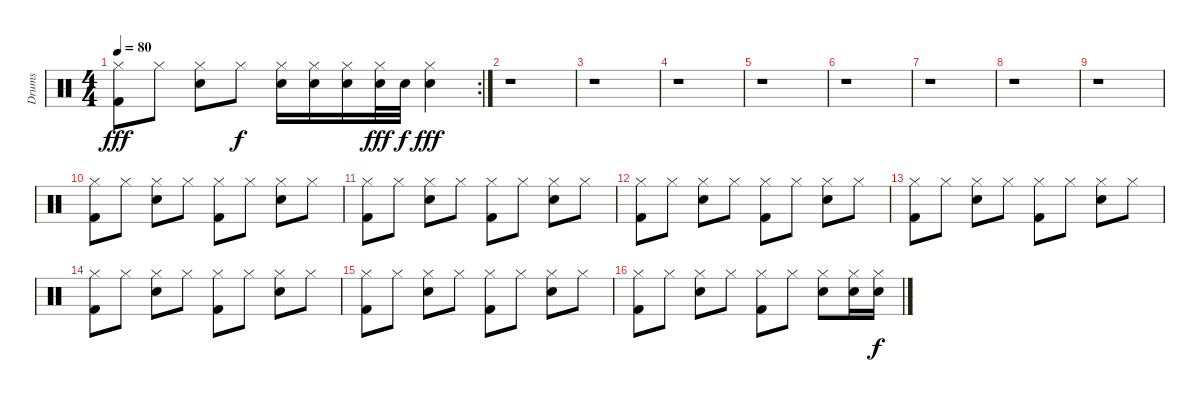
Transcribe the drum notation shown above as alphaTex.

\track ("Drums" "Drums") {instrument percussion}
\staff {score}
\articulation defaults
\rc 2
\ts (4 4)
\tempo 80
\clef neutral
\ks c
("Hi-Hat (closed)" "Kick (hit) 2").8{dy fff} "Hi-Hat (closed)".8 ("Hi-Hat (closed)" "Snare (hit) 2").8 "Hi-Hat (closed)".8{dy f} ("Hi-Hat (closed)" "Snare (hit) 2").16 ("Hi-Hat (closed)" "Snare (hit) 2").16 ("Hi-Hat (closed)" "Snare (hit) 2").16 ("Hi-Hat (closed)" "Snare (hit) 2").32{dy fff} "Snare (hit) 2".32{dy f} ("Hi-Hat (closed)" "Snare (hit) 2").4{dy fff} |
r.1 |
r.1 |
r.1 |
r.1 |
r.1 |
r.1 |
r.1 |
r.1 |
("Hi-Hat (closed)" "Kick (hit) 2").8 "Hi-Hat (closed)".8 ("Hi-Hat (closed)" "Snare (hit) 2").8 "Hi-Hat (closed)".8 ("Hi-Hat (closed)" "Kick (hit) 2").8 "Hi-Hat (closed)".8 ("Hi-Hat (closed)" "Snare (hit) 2").8 "Hi-Hat (closed)".8 |
("Hi-Hat (closed)" "Kick (hit) 2").8 "Hi-Hat (closed)".8 ("Hi-Hat (closed)" "Snare (hit) 2").8 "Hi-Hat (closed)".8 ("Hi-Hat (closed)" "Kick (hit) 2").8 "Hi-Hat (closed)".8 ("Hi-Hat (closed)" "Snare (hit) 2").8 "Hi-Hat (closed)".8 |
("Hi-Hat (closed)" "Kick (hit) 2").8 "Hi-Hat (closed)".8 ("Hi-Hat (closed)" "Snare (hit) 2").8 "Hi-Hat (closed)".8 ("Hi-Hat (closed)" "Kick (hit) 2").8 "Hi-Hat (closed)".8 ("Hi-Hat (closed)" "Snare (hit) 2").8 "Hi-Hat (closed)".8 |
("Hi-Hat (closed)" "Kick (hit) 2").8 "Hi-Hat (closed)".8 ("Hi-Hat (closed)" "Snare (hit) 2").8 "Hi-Hat (closed)".8 ("Hi-Hat (closed)" "Kick (hit) 2").8 "Hi-Hat (closed)".8 ("Hi-Hat (closed)" "Snare (hit) 2").8 "Hi-Hat (closed)".8 |
("Hi-Hat (closed)" "Kick (hit) 2").8 "Hi-Hat (closed)".8 ("Hi-Hat (closed)" "Snare (hit) 2").8 "Hi-Hat (closed)".8 ("Hi-Hat (closed)" "Kick (hit) 2").8 "Hi-Hat (closed)".8 ("Hi-Hat (closed)" "Snare (hit) 2").8 "Hi-Hat (closed)".8 |
("Hi-Hat (closed)" "Kick (hit) 2").8 "Hi-Hat (closed)".8 ("Hi-Hat (closed)" "Snare (hit) 2").8 "Hi-Hat (closed)".8 ("Hi-Hat (closed)" "Kick (hit) 2").8 "Hi-Hat (closed)".8 ("Hi-Hat (closed)" "Snare (hit) 2").8 "Hi-Hat (closed)".8 |
("Hi-Hat (closed)" "Kick (hit) 2").8 "Hi-Hat (closed)".8 ("Hi-Hat (closed)" "Snare (hit) 2").8 "Hi-Hat (closed)".8 ("Hi-Hat (closed)" "Kick (hit) 2").8 "Hi-Hat (closed)".8 ("Hi-Hat (closed)" "Snare (hit) 2").8 ("Hi-Hat (closed)" "Snare (hit) 2").16 ("Hi-Hat (closed)" "Snare (hit) 2").16{dy f}
